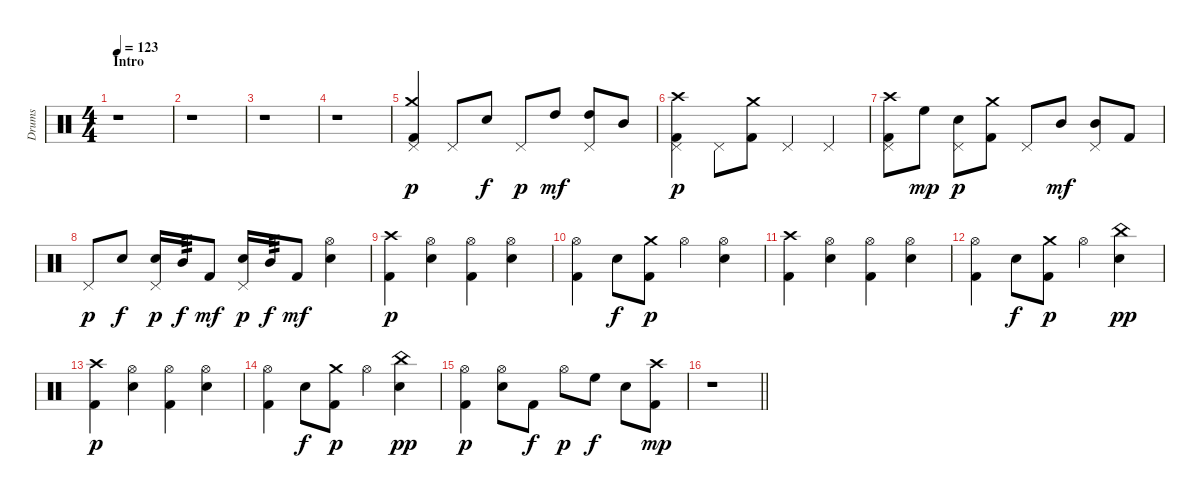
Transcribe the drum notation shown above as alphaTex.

\track ("Drums" "Drums") {instrument percussion}
\staff {score}
\articulation defaults
\ts (4 4)
\section ("" "Intro")
\tempo 123
\clef neutral
\ks c
r.1{dy p} |
r.1 |
r.1 |
r.1 |
("Pedal Hi-Hat (hit)" "Crash medium (hit)" "Kick (hit) 2").4 "Pedal Hi-Hat (hit)".8 "Electric Snare (hit)".8{dy f} "Pedal Hi-Hat (hit)".8{dy p} "High Tom (hit)".8{dy mf} ("Pedal Hi-Hat (hit)" "High Tom (hit)").8 "Mid Tom (hit)".8 |
("Pedal Hi-Hat (hit)" "Kick (hit) 2" "Crash high (hit)").4{dy p} "Pedal Hi-Hat (hit)".8 ("Kick (hit) 2" "Crash medium (hit)").8 "Pedal Hi-Hat (hit)".4 "Pedal Hi-Hat (hit)".4 |
("Pedal Hi-Hat (hit)" "Kick (hit) 2" "Crash high (hit)").8 "High Floor Tom (hit)".8{dy mp} ("Pedal Hi-Hat (hit)" "Electric Snare (hit)").8{dy p} ("Kick (hit) 2" "Crash medium (hit)").8 "Pedal Hi-Hat (hit)".8 "Mid Tom (hit)".8{dy mf} ("Pedal Hi-Hat (hit)" "Mid Tom (hit)").8 "Kick (hit) 2".8 |
"Pedal Hi-Hat (hit)".8{dy p} "Electric Snare (hit)".8{dy f} ("Pedal Hi-Hat (hit)" "Electric Snare (hit)").16{dy p} "Mid Tom (hit)".16{tp 3 dy f} "Kick (hit) 2".8{dy mf} ("Pedal Hi-Hat (hit)" "Electric Snare (hit)").16{dy p} "Mid Tom (hit)".16{tp 3 dy f} "Kick (hit) 2".8{dy mf} ("Electric Snare (hit)" "Hi-Hat (open)").4 |
("Kick (hit) 2" "Crash high (hit)").4{dy p} ("Electric Snare (hit)" "Hi-Hat (open)").4 ("Kick (hit) 2" "Hi-Hat (open)").4 ("Electric Snare (hit)" "Hi-Hat (open)").4 |
("Kick (hit) 2" "Hi-Hat (open)").4 "Electric Snare (hit)".8{dy f} ("Kick (hit) 2" "Crash medium (hit)").8{dy p} "Hi-Hat (open)".4 ("Electric Snare (hit)" "Hi-Hat (open)").4 |
("Kick (hit) 2" "Crash high (hit)").4 ("Electric Snare (hit)" "Hi-Hat (open)").4 ("Kick (hit) 2" "Hi-Hat (open)").4 ("Electric Snare (hit)" "Hi-Hat (open)").4 |
("Kick (hit) 2" "Hi-Hat (open)").4 "Electric Snare (hit)".8{dy f} ("Kick (hit) 2" "Crash medium (hit)").8{dy p} "Hi-Hat (open)".4 ("Electric Snare (hit)" "China (hit)").4{dy pp} |
("Kick (hit) 2" "Crash high (hit)").4{dy p} ("Electric Snare (hit)" "Hi-Hat (open)").4 ("Kick (hit) 2" "Hi-Hat (open)").4 ("Electric Snare (hit)" "Hi-Hat (open)").4 |
("Kick (hit) 2" "Hi-Hat (open)").4 "Electric Snare (hit)".8{dy f} ("Kick (hit) 2" "Crash medium (hit)").8{dy p} "Hi-Hat (open)".4 ("Electric Snare (hit)" "China (hit)").4{dy pp} |
("Kick (hit) 2" "Hi-Hat (open)").4{dy p} ("Electric Snare (hit)" "Hi-Hat (open)").8 "Kick (hit) 2".8{dy f} "Hi-Hat (open)".8{dy p} "High Floor Tom (hit)".8{dy f} "Electric Snare (hit)".8 ("Kick (hit) 2" "Crash high (hit)").8{dy mp} |
\barLineRight lightlight
r.1
